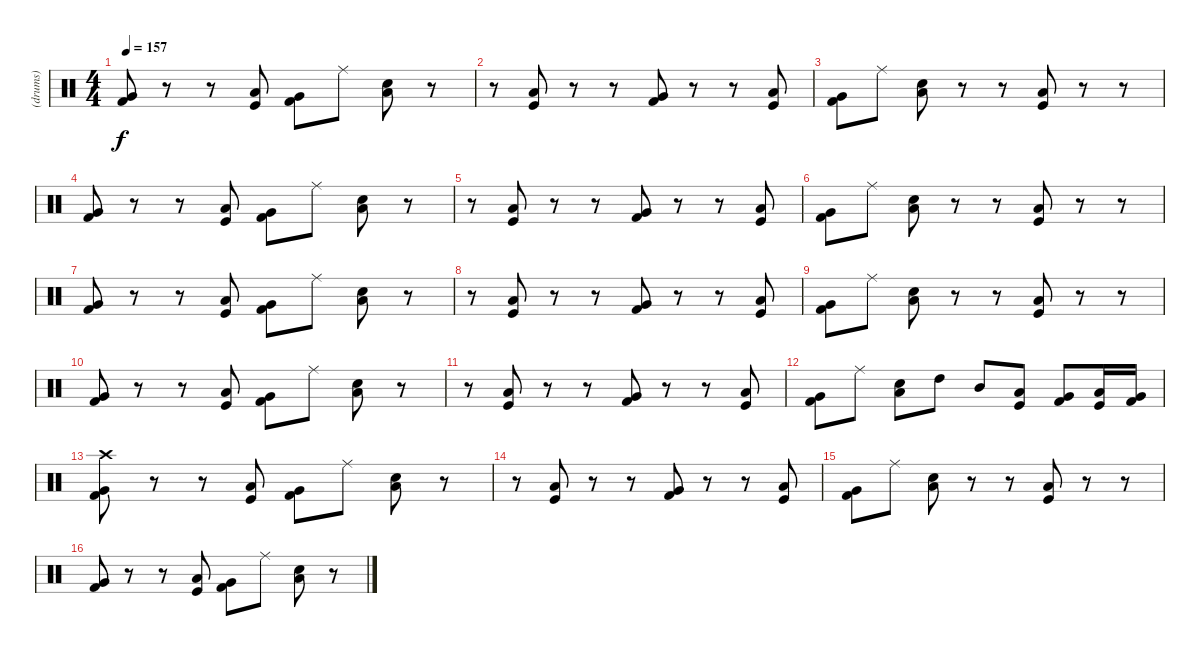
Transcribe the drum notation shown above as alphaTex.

\track ("(drums)" "(drums)") {instrument percussion}
\staff {score}
\articulation defaults
\ts (4 4)
\tempo 157
\clef neutral
\ks c
("Kick (hit) 2" "Very Low Tom (hit)").8{dy f} r.8 r.8 ("Kick (hit)" "Low Tom (hit)").8 ("Kick (hit) 2" "Very Low Tom (hit)").8 "Ride (middle)".8 ("Snare (hit) 2" "Low Floor Tom (hit)").8 r.8 |
r.8 ("Kick (hit)" "Low Tom (hit)").8 r.8 r.8 ("Kick (hit) 2" "Very Low Tom (hit)").8 r.8 r.8 ("Kick (hit)" "Low Tom (hit)").8 |
("Kick (hit) 2" "Very Low Tom (hit)").8 "Ride (middle)".8 ("Snare (hit) 2" "Low Floor Tom (hit)").8 r.8 r.8 ("Kick (hit)" "Low Tom (hit)").8 r.8 r.8 |
("Kick (hit) 2" "Very Low Tom (hit)").8 r.8 r.8 ("Kick (hit)" "Low Tom (hit)").8 ("Kick (hit) 2" "Very Low Tom (hit)").8 "Ride (middle)".8 ("Snare (hit) 2" "Low Floor Tom (hit)").8 r.8 |
r.8 ("Kick (hit)" "Low Tom (hit)").8 r.8 r.8 ("Kick (hit) 2" "Very Low Tom (hit)").8 r.8 r.8 ("Kick (hit)" "Low Tom (hit)").8 |
("Kick (hit) 2" "Very Low Tom (hit)").8 "Ride (middle)".8 ("Snare (hit) 2" "Low Floor Tom (hit)").8 r.8 r.8 ("Kick (hit)" "Low Tom (hit)").8 r.8 r.8 |
("Kick (hit) 2" "Very Low Tom (hit)").8 r.8 r.8 ("Kick (hit)" "Low Tom (hit)").8 ("Kick (hit) 2" "Very Low Tom (hit)").8 "Ride (middle)".8 ("Snare (hit) 2" "Low Floor Tom (hit)").8 r.8 |
r.8 ("Kick (hit)" "Low Tom (hit)").8 r.8 r.8 ("Kick (hit) 2" "Very Low Tom (hit)").8 r.8 r.8 ("Kick (hit)" "Low Tom (hit)").8 |
("Kick (hit) 2" "Very Low Tom (hit)").8 "Ride (middle)".8 ("Snare (hit) 2" "Low Floor Tom (hit)").8 r.8 r.8 ("Kick (hit)" "Low Tom (hit)").8 r.8 r.8 |
("Kick (hit) 2" "Very Low Tom (hit)").8 r.8 r.8 ("Kick (hit)" "Low Tom (hit)").8 ("Kick (hit) 2" "Very Low Tom (hit)").8 "Ride (middle)".8 ("Snare (hit) 2" "Low Floor Tom (hit)").8 r.8 |
r.8 ("Kick (hit)" "Low Tom (hit)").8 r.8 r.8 ("Kick (hit) 2" "Very Low Tom (hit)").8 r.8 r.8 ("Kick (hit)" "Low Tom (hit)").8 |
("Kick (hit) 2" "Very Low Tom (hit)").8 "Ride (middle)".8 ("Snare (hit) 2" "Low Floor Tom (hit)").8 "High Tom (hit)".8 "Mid Tom (hit)".8 ("Kick (hit)" "Low Tom (hit)").8 ("Very Low Tom (hit)" "Kick (hit) 2").8 ("Low Tom (hit)" "Kick (hit)").16 ("Very Low Tom (hit)" "Kick (hit) 2").16 |
("Kick (hit) 2" "Very Low Tom (hit)" "Crash high (hit)").8 r.8 r.8 ("Kick (hit)" "Low Tom (hit)").8 ("Kick (hit) 2" "Very Low Tom (hit)").8 "Ride (middle)".8 ("Snare (hit) 2" "Low Floor Tom (hit)").8 r.8 |
r.8 ("Kick (hit)" "Low Tom (hit)").8 r.8 r.8 ("Kick (hit) 2" "Very Low Tom (hit)").8 r.8 r.8 ("Kick (hit)" "Low Tom (hit)").8 |
("Kick (hit) 2" "Very Low Tom (hit)").8 "Ride (middle)".8 ("Snare (hit) 2" "Low Floor Tom (hit)").8 r.8 r.8 ("Kick (hit)" "Low Tom (hit)").8 r.8 r.8 |
("Kick (hit) 2" "Very Low Tom (hit)").8 r.8 r.8 ("Kick (hit)" "Low Tom (hit)").8 ("Kick (hit) 2" "Very Low Tom (hit)").8 "Ride (middle)".8 ("Snare (hit) 2" "Low Floor Tom (hit)").8 r.8
